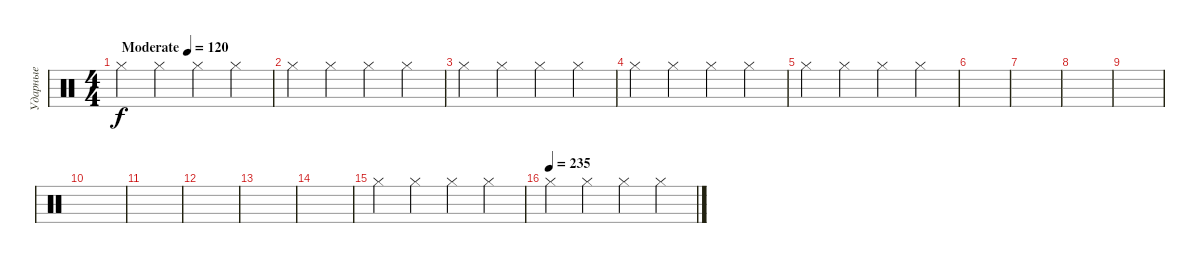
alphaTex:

\track ("Ударные" "Ударные") {instrument percussion}
\staff {score}
\articulation defaults
\ts (4 4)
\tempo (120 "Moderate")
\clef neutral
\ks c "Hi-Hat (closed)".4{dy f} "Hi-Hat (closed)".4 "Hi-Hat (closed)".4 "Hi-Hat (closed)".4
|
"Hi-Hat (closed)".4 "Hi-Hat (closed)".4 "Hi-Hat (closed)".4 "Hi-Hat (closed)".4 |
"Hi-Hat (closed)".4 "Hi-Hat (closed)".4 "Hi-Hat (closed)".4 "Hi-Hat (closed)".4 |
"Hi-Hat (closed)".4 "Hi-Hat (closed)".4 "Hi-Hat (closed)".4 "Hi-Hat (closed)".4 |
"Hi-Hat (closed)".4 "Hi-Hat (closed)".4 "Hi-Hat (closed)".4 "Hi-Hat (closed)".4 |
|
|
|
|
|
|
|
|
|
"Hi-Hat (closed)".4 "Hi-Hat (closed)".4 "Hi-Hat (closed)".4 "Hi-Hat (closed)".4 |
\tempo (235)
"Hi-Hat (closed)".4 "Hi-Hat (closed)".4 "Hi-Hat (closed)".4 "Hi-Hat (closed)".4
